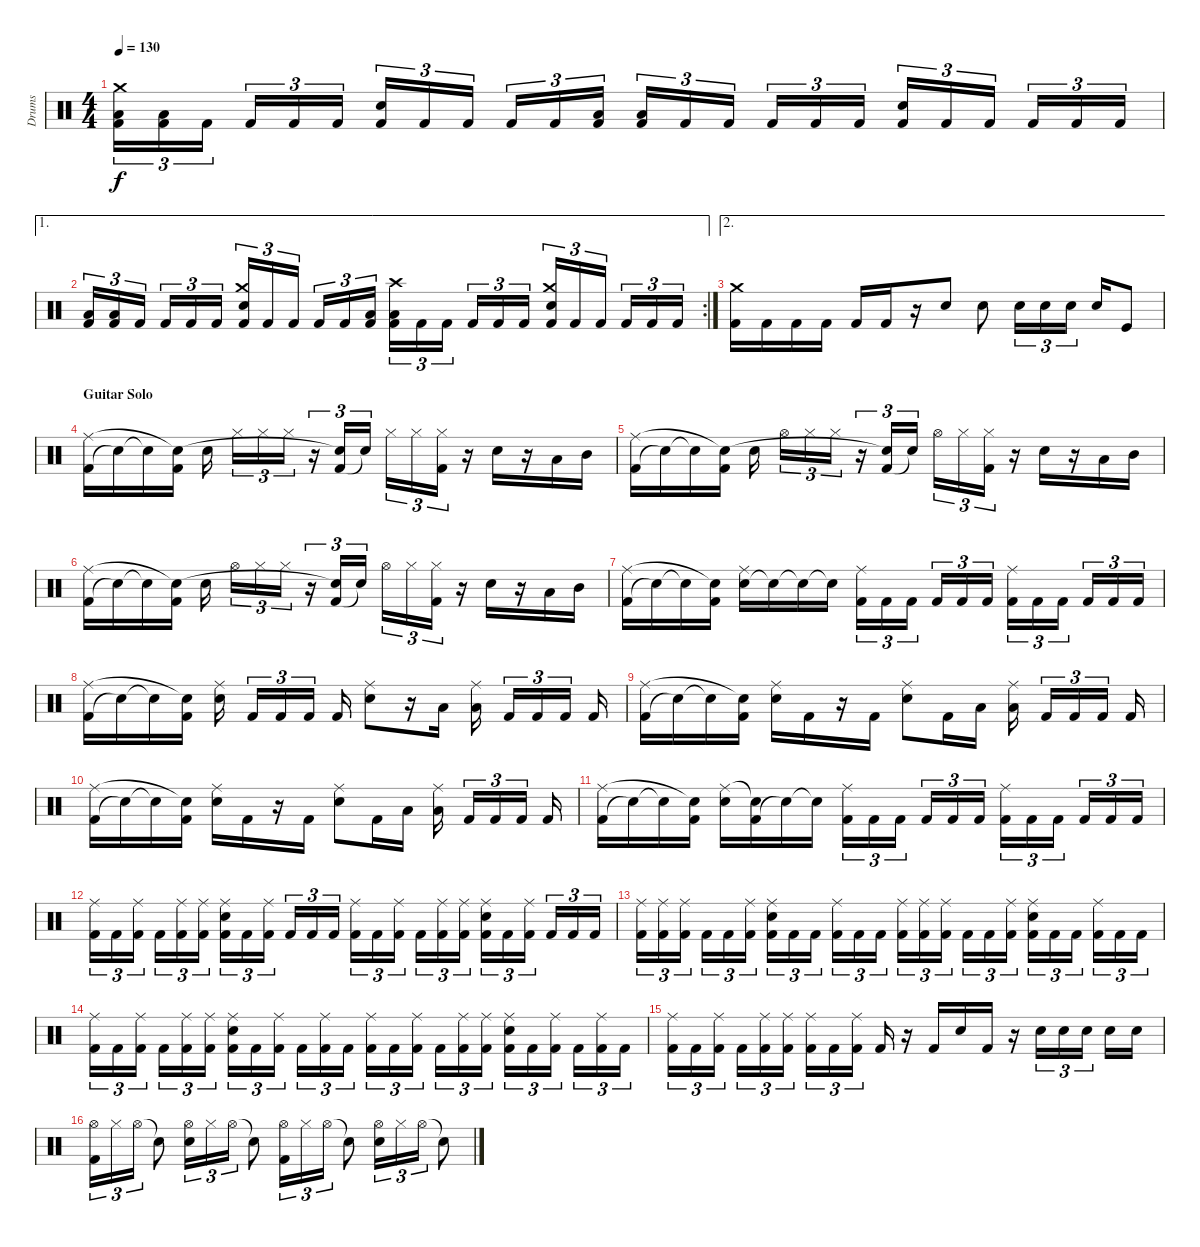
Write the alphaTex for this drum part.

\track ("Drums" "Drums") {instrument percussion}
\staff {score}
\articulation defaults
\ts (4 4)
\tempo 130
\clef neutral
\ks c
("Kick (hit) 2" "Low Floor Tom (hit)" "Crash medium (hit)").16{tu (3 2) dy f} ("Kick (hit) 2" "Low Floor Tom (hit)").16{tu (3 2)} "Kick (hit) 2".16{tu (3 2)} "Kick (hit) 2".16{tu (3 2)} "Kick (hit) 2".16{tu (3 2)} "Kick (hit) 2".16{tu (3 2)} ("Kick (hit) 2" "Snare (hit) 2").16{tu (3 2)} "Kick (hit) 2".16{tu (3 2)} "Kick (hit) 2".16{tu (3 2)} "Kick (hit) 2".16{tu (3 2)} "Kick (hit) 2".16{tu (3 2)} ("Kick (hit) 2" "Low Floor Tom (hit)").16{tu (3 2)} ("Kick (hit) 2" "Low Floor Tom (hit)").16{tu (3 2)} "Kick (hit) 2".16{tu (3 2)} "Kick (hit) 2".16{tu (3 2)} "Kick (hit) 2".16{tu (3 2)} "Kick (hit) 2".16{tu (3 2)} "Kick (hit) 2".16{tu (3 2)} ("Kick (hit) 2" "Snare (hit) 2").16{tu (3 2)} "Kick (hit) 2".16{tu (3 2)} "Kick (hit) 2".16{tu (3 2)} "Kick (hit) 2".16{tu (3 2)} "Kick (hit) 2".16{tu (3 2)} "Kick (hit) 2".16{tu (3 2)} |
\ae 1
\rc 2
("Kick (hit) 2" "Low Floor Tom (hit)").16{tu (3 2)} ("Kick (hit) 2" "Low Floor Tom (hit)").16{tu (3 2)} "Kick (hit) 2".16{tu (3 2)} "Kick (hit) 2".16{tu (3 2)} "Kick (hit) 2".16{tu (3 2)} "Kick (hit) 2".16{tu (3 2)} ("Kick (hit) 2" "Snare (hit) 2" "Crash medium (hit)").16{tu (3 2)} "Kick (hit) 2".16{tu (3 2)} "Kick (hit) 2".16{tu (3 2)} "Kick (hit) 2".16{tu (3 2)} "Kick (hit) 2".16{tu (3 2)} ("Kick (hit) 2" "Low Floor Tom (hit)").16{tu (3 2)} ("Kick (hit) 2" "Low Floor Tom (hit)" "Crash high (hit)").16{tu (3 2)} "Kick (hit) 2".16{tu (3 2)} "Kick (hit) 2".16{tu (3 2)} "Kick (hit) 2".16{tu (3 2)} "Kick (hit) 2".16{tu (3 2)} "Kick (hit) 2".16{tu (3 2)} ("Kick (hit) 2" "Snare (hit) 2" "Crash medium (hit)").16{tu (3 2)} "Kick (hit) 2".16{tu (3 2)} "Kick (hit) 2".16{tu (3 2)} "Kick (hit) 2".16{tu (3 2)} "Kick (hit) 2".16{tu (3 2)} "Kick (hit) 2".16{tu (3 2)} |
\ae 2
("Kick (hit) 2" "Crash medium (hit)").16 "Kick (hit) 2".16 "Kick (hit) 2".16 "Kick (hit) 2".16 "Kick (hit) 2".16 "Kick (hit) 2".16 r.16 "Snare (hit) 2".8 "Snare (hit) 2".8 "Snare (hit) 2".16{tu (3 2)} "Snare (hit) 2".16{tu (3 2)} "Snare (hit) 2".16{tu (3 2)} "Snare (hit) 2".16 "Kick (hit)".8 |
\section ("" "Guitar Solo")
("Kick (hit) 2" "Ride (middle)").16 "Snare (hit)"{t}.16 "Snare (hit)"{t}.16 ("Kick (hit) 2" "Snare (hit)"{t}).16 "Snare (hit) 2".16 "Hi-Hat (closed)".16{tu (3 2)} "Hi-Hat (closed)".16{tu (3 2)} "Hi-Hat (closed)".16{tu (3 2)} r.16{tu (3 2)} ("Kick (hit) 2" "Snare (hit)"{t}).16{tu (3 2)} "Snare (hit)"{t}.16{tu (3 2)} "Hi-Hat (closed)".16{tu (3 2)} "Hi-Hat (closed)".16{tu (3 2)} ("Kick (hit) 2" "Hi-Hat (closed)").16{tu (3 2)} r.16 "Snare (hit) 2".16 r.16 "Low Tom (hit)".16 "Mid Tom (hit)".16 |
("Kick (hit) 2" "Ride (middle)").16 "Snare (hit)"{t}.16 "Snare (hit)"{t}.16 ("Kick (hit) 2" "Snare (hit)"{t}).16 "Snare (hit) 2".16 "Hi-Hat (open)".16{tu (3 2)} "Hi-Hat (closed)".16{tu (3 2)} "Hi-Hat (closed)".16{tu (3 2)} r.16{tu (3 2)} ("Kick (hit) 2" "Snare (hit)"{t}).16{tu (3 2)} "Snare (hit)"{t}.16{tu (3 2)} "Hi-Hat (open)".16{tu (3 2)} "Hi-Hat (closed)".16{tu (3 2)} ("Kick (hit) 2" "Hi-Hat (closed)").16{tu (3 2)} r.16 "Snare (hit) 2".16 r.16 "Low Tom (hit)".16 "Mid Tom (hit)".16 |
("Kick (hit) 2" "Ride (middle)").16 "Snare (hit)"{t}.16 "Snare (hit)"{t}.16 ("Kick (hit) 2" "Snare (hit)"{t}).16 "Snare (hit) 2".16 "Hi-Hat (open)".16{tu (3 2)} "Hi-Hat (closed)".16{tu (3 2)} "Hi-Hat (closed)".16{tu (3 2)} r.16{tu (3 2)} ("Kick (hit) 2" "Snare (hit)"{t}).16{tu (3 2)} "Snare (hit)"{t}.16{tu (3 2)} "Hi-Hat (open)".16{tu (3 2)} "Hi-Hat (closed)".16{tu (3 2)} ("Kick (hit) 2" "Hi-Hat (closed)").16{tu (3 2)} r.16 "Snare (hit) 2".16 r.16 "Low Tom (hit)".16 "Mid Tom (hit)".16 |
("Kick (hit) 2" "Ride (middle)").16 "Snare (hit)"{t}.16 "Snare (hit)"{t}.16 ("Kick (hit) 2" "Snare (hit)"{t}).16 ("Snare (hit) 2" "Ride (middle)").16 "Snare (hit)"{t}.16 "Snare (hit)"{t}.16 "Snare (hit)"{t}.16 ("Kick (hit) 2" "Ride (middle)").16{tu (3 2)} "Kick (hit) 2".16{tu (3 2)} "Kick (hit) 2".16{tu (3 2)} "Kick (hit) 2".16{tu (3 2)} "Kick (hit) 2".16{tu (3 2)} "Kick (hit) 2".16{tu (3 2)} ("Kick (hit) 2" "Ride (middle)").16{tu (3 2)} "Kick (hit) 2".16{tu (3 2)} "Kick (hit) 2".16{tu (3 2)} "Kick (hit) 2".16{tu (3 2)} "Kick (hit) 2".16{tu (3 2)} "Kick (hit) 2".16{tu (3 2)} |
("Kick (hit) 2" "Ride (middle)").16 "Snare (hit)"{t}.16 "Snare (hit)"{t}.16 ("Kick (hit) 2" "Snare (hit)"{t}).16 ("Snare (hit) 2" "Ride (middle)").16 "Kick (hit) 2".16{tu (3 2)} "Kick (hit) 2".16{tu (3 2)} "Kick (hit) 2".16{tu (3 2)} "Kick (hit) 2".16 ("Snare (hit) 2" "Ride (middle)").8 r.16 "Low Tom (hit)".16 ("Low Tom (hit)" "Ride (middle)").16 "Kick (hit) 2".16{tu (3 2)} "Kick (hit) 2".16{tu (3 2)} "Kick (hit) 2".16{tu (3 2)} "Kick (hit) 2".16 |
("Kick (hit) 2" "Ride (middle)").16 "Snare (hit)"{t}.16 "Snare (hit)"{t}.16 ("Kick (hit) 2" "Snare (hit)"{t}).16 ("Snare (hit) 2" "Ride (middle)").16 "Kick (hit) 2".16 r.16 "Kick (hit) 2".16 ("Snare (hit) 2" "Ride (middle)").8 "Kick (hit) 2".16 "Low Tom (hit)".16 ("Low Tom (hit)" "Ride (middle)").16 "Kick (hit) 2".16{tu (3 2)} "Kick (hit) 2".16{tu (3 2)} "Kick (hit) 2".16{tu (3 2)} "Kick (hit) 2".16 |
("Kick (hit) 2" "Ride (middle)").16 "Snare (hit)"{t}.16 "Snare (hit)"{t}.16 ("Kick (hit) 2" "Snare (hit)"{t}).16 ("Snare (hit) 2" "Ride (middle)").16 "Kick (hit) 2".16 r.16 "Kick (hit) 2".16 ("Snare (hit) 2" "Ride (middle)").8 "Kick (hit) 2".16 "Low Tom (hit)".16 ("Low Tom (hit)" "Ride (middle)").16 "Kick (hit) 2".16{tu (3 2)} "Kick (hit) 2".16{tu (3 2)} "Kick (hit) 2".16{tu (3 2)} "Kick (hit) 2".16 |
("Kick (hit) 2" "Ride (middle)").16 "Snare (hit)"{t}.16 "Snare (hit)"{t}.16 ("Kick (hit) 2" "Snare (hit)"{t}).16 ("Snare (hit) 2" "Ride (middle)").16 ("Kick (hit) 2" "Snare (hit)"{t}).16 "Snare (hit)"{t}.16 "Snare (hit)"{t}.16 ("Kick (hit) 2" "Ride (middle)").16{tu (3 2)} "Kick (hit) 2".16{tu (3 2)} "Kick (hit) 2".16{tu (3 2)} "Kick (hit) 2".16{tu (3 2)} "Kick (hit) 2".16{tu (3 2)} "Kick (hit) 2".16{tu (3 2)} ("Kick (hit) 2" "Ride (middle)").16{tu (3 2)} "Kick (hit) 2".16{tu (3 2)} "Kick (hit) 2".16{tu (3 2)} "Kick (hit) 2".16{tu (3 2)} "Kick (hit) 2".16{tu (3 2)} "Kick (hit) 2".16{tu (3 2)} |
("Kick (hit) 2" "Ride (middle)").16{tu (3 2)} "Kick (hit) 2".16{tu (3 2)} ("Kick (hit) 2" "Ride (middle)").16{tu (3 2)} "Kick (hit) 2".16{tu (3 2)} ("Kick (hit) 2" "Ride (middle)").16{tu (3 2)} ("Kick (hit) 2" "Ride (middle)").16{tu (3 2)} ("Kick (hit) 2" "Snare (hit) 2" "Ride (middle)").16{tu (3 2)} "Kick (hit) 2".16{tu (3 2)} ("Kick (hit) 2" "Ride (middle)").16{tu (3 2)} "Kick (hit) 2".16{tu (3 2)} "Kick (hit) 2".16{tu (3 2)} "Kick (hit) 2".16{tu (3 2)} ("Kick (hit) 2" "Ride (middle)").16{tu (3 2)} "Kick (hit) 2".16{tu (3 2)} ("Kick (hit) 2" "Ride (middle)").16{tu (3 2)} "Kick (hit) 2".16{tu (3 2)} ("Kick (hit) 2" "Ride (middle)").16{tu (3 2)} ("Kick (hit) 2" "Ride (middle)").16{tu (3 2)} ("Kick (hit) 2" "Snare (hit) 2" "Ride (middle)").16{tu (3 2)} "Kick (hit) 2".16{tu (3 2)} ("Kick (hit) 2" "Ride (middle)").16{tu (3 2)} "Kick (hit) 2".16{tu (3 2)} "Kick (hit) 2".16{tu (3 2)} "Kick (hit) 2".16{tu (3 2)} |
("Kick (hit) 2" "Ride (middle)").16{tu (3 2)} ("Kick (hit) 2" "Ride (middle)").16{tu (3 2)} ("Kick (hit) 2" "Ride (middle)").16{tu (3 2)} "Kick (hit) 2".16{tu (3 2)} "Kick (hit) 2".16{tu (3 2)} ("Kick (hit) 2" "Ride (middle)").16{tu (3 2)} ("Kick (hit) 2" "Snare (hit) 2" "Ride (middle)").16{tu (3 2)} "Kick (hit) 2".16{tu (3 2)} "Kick (hit) 2".16{tu (3 2)} ("Kick (hit) 2" "Ride (middle)").16{tu (3 2)} "Kick (hit) 2".16{tu (3 2)} "Kick (hit) 2".16{tu (3 2)} ("Kick (hit) 2" "Ride (middle)").16{tu (3 2)} ("Kick (hit) 2" "Ride (middle)").16{tu (3 2)} ("Kick (hit) 2" "Ride (middle)").16{tu (3 2)} "Kick (hit) 2".16{tu (3 2)} "Kick (hit) 2".16{tu (3 2)} ("Kick (hit) 2" "Ride (middle)").16{tu (3 2)} ("Kick (hit) 2" "Snare (hit) 2" "Ride (middle)").16{tu (3 2)} "Kick (hit) 2".16{tu (3 2)} "Kick (hit) 2".16{tu (3 2)} ("Kick (hit) 2" "Ride (middle)").16{tu (3 2)} "Kick (hit) 2".16{tu (3 2)} "Kick (hit) 2".16{tu (3 2)} |
("Kick (hit) 2" "Ride (middle)").16{tu (3 2)} "Kick (hit) 2".16{tu (3 2)} ("Kick (hit) 2" "Ride (middle)").16{tu (3 2)} "Kick (hit) 2".16{tu (3 2)} ("Kick (hit) 2" "Ride (middle)").16{tu (3 2)} ("Kick (hit) 2" "Ride (middle)").16{tu (3 2)} ("Kick (hit) 2" "Snare (hit) 2" "Ride (middle)").16{tu (3 2)} "Kick (hit) 2".16{tu (3 2)} ("Kick (hit) 2" "Ride (middle)").16{tu (3 2)} "Kick (hit) 2".16{tu (3 2)} ("Kick (hit) 2" "Ride (middle)").16{tu (3 2)} "Kick (hit) 2".16{tu (3 2)} ("Kick (hit) 2" "Ride (middle)").16{tu (3 2)} "Kick (hit) 2".16{tu (3 2)} ("Kick (hit) 2" "Ride (middle)").16{tu (3 2)} "Kick (hit) 2".16{tu (3 2)} ("Kick (hit) 2" "Ride (middle)").16{tu (3 2)} ("Kick (hit) 2" "Ride (middle)").16{tu (3 2)} ("Kick (hit) 2" "Snare (hit) 2" "Ride (middle)").16{tu (3 2)} "Kick (hit) 2".16{tu (3 2)} ("Kick (hit) 2" "Ride (middle)").16{tu (3 2)} "Kick (hit) 2".16{tu (3 2)} ("Kick (hit) 2" "Ride (middle)").16{tu (3 2)} "Kick (hit) 2".16{tu (3 2)} |
("Kick (hit) 2" "Ride (middle)").16{tu (3 2)} "Kick (hit) 2".16{tu (3 2)} ("Kick (hit) 2" "Ride (middle)").16{tu (3 2)} "Kick (hit) 2".16{tu (3 2)} ("Kick (hit) 2" "Ride (middle)").16{tu (3 2)} ("Kick (hit) 2" "Ride (middle)").16{tu (3 2)} ("Kick (hit) 2" "Ride (middle)").16{tu (3 2)} "Kick (hit) 2".16{tu (3 2)} ("Kick (hit) 2" "Ride (middle)").16{tu (3 2)} "Kick (hit) 2".16 r.16 "Kick (hit) 2".16 "Snare (hit) 2".16 "Kick (hit) 2".16 r.16 "Snare (hit) 2".16{tu (3 2)} "Snare (hit) 2".16{tu (3 2)} "Snare (hit) 2".16{tu (3 2)} "Snare (hit) 2".16 "Snare (hit) 2".16 |
("Kick (hit) 2" "Hi-Hat (open)").16{tu (3 2)} "Hi-Hat (closed)".16{tu (3 2)} "Hi-Hat (open)".16{tu (3 2)} "Snare (hit)"{t}.8 ("Snare (hit) 2" "Hi-Hat (open)").16{tu (3 2)} "Hi-Hat (closed)".16{tu (3 2)} "Hi-Hat (open)".16{tu (3 2)} "Snare (hit)"{t}.8 ("Kick (hit) 2" "Hi-Hat (open)").16{tu (3 2)} "Hi-Hat (closed)".16{tu (3 2)} "Hi-Hat (open)".16{tu (3 2)} "Snare (hit)"{t}.8 ("Snare (hit) 2" "Hi-Hat (open)").16{tu (3 2)} "Hi-Hat (closed)".16{tu (3 2)} "Hi-Hat (open)".16{tu (3 2)} "Snare (hit)"{t}.8
